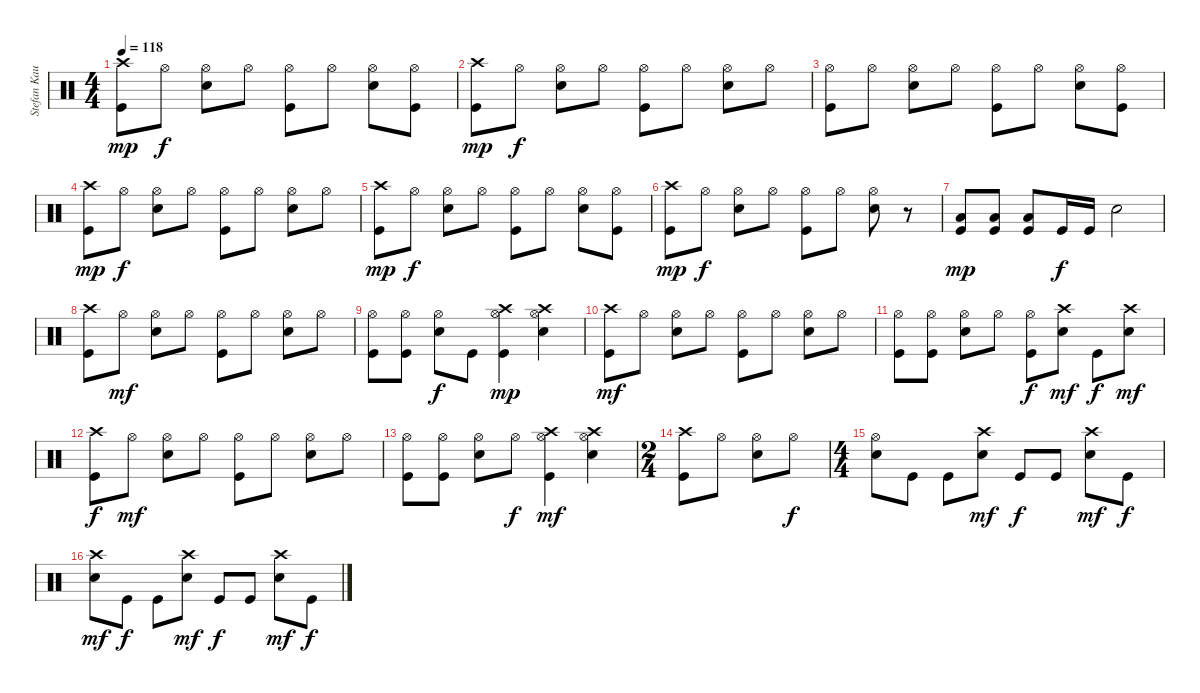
\track ("Stefan Kaufmann" "Stefan Kau") {instrument percussion}
\staff {score}
\articulation defaults
\ts (4 4)
\tempo 118
\clef neutral
\ks c
("Crash high (hit)" "Kick (hit)").8{dy mp} "Hi-Hat (open)".8{dy f} ("Hi-Hat (open)" "Snare (hit) 2").8 "Hi-Hat (open)".8 ("Hi-Hat (open)" "Kick (hit)").8 "Hi-Hat (open)".8 ("Hi-Hat (open)" "Snare (hit) 2").8 ("Hi-Hat (open)" "Kick (hit)").8 |
("Crash high (hit)" "Kick (hit)").8{dy mp} "Hi-Hat (open)".8{dy f} ("Hi-Hat (open)" "Snare (hit) 2").8 "Hi-Hat (open)".8 ("Hi-Hat (open)" "Kick (hit)").8 "Hi-Hat (open)".8 ("Hi-Hat (open)" "Snare (hit) 2").8 "Hi-Hat (open)".8 |
("Hi-Hat (open)" "Kick (hit)").8 "Hi-Hat (open)".8 ("Hi-Hat (open)" "Snare (hit) 2").8 "Hi-Hat (open)".8 ("Hi-Hat (open)" "Kick (hit)").8 "Hi-Hat (open)".8 ("Hi-Hat (open)" "Snare (hit) 2").8 ("Hi-Hat (open)" "Kick (hit)").8 |
("Crash high (hit)" "Kick (hit)").8{dy mp} "Hi-Hat (open)".8{dy f} ("Hi-Hat (open)" "Snare (hit) 2").8 "Hi-Hat (open)".8 ("Hi-Hat (open)" "Kick (hit)").8 "Hi-Hat (open)".8 ("Hi-Hat (open)" "Snare (hit) 2").8 "Hi-Hat (open)".8 |
("Crash high (hit)" "Kick (hit)").8{dy mp} "Hi-Hat (open)".8{dy f} ("Hi-Hat (open)" "Snare (hit) 2").8 "Hi-Hat (open)".8 ("Hi-Hat (open)" "Kick (hit)").8 "Hi-Hat (open)".8 ("Hi-Hat (open)" "Snare (hit) 2").8 ("Hi-Hat (open)" "Kick (hit)").8 |
("Crash high (hit)" "Kick (hit)").8{dy mp} "Hi-Hat (open)".8{dy f} ("Hi-Hat (open)" "Snare (hit) 2").8 "Hi-Hat (open)".8 ("Hi-Hat (open)" "Kick (hit)").8 "Hi-Hat (open)".8 ("Hi-Hat (open)" "Snare (hit) 2").8 r.8 |
("Low Floor Tom (hit)" "Kick (hit)").8{dy mp} ("Low Floor Tom (hit)" "Kick (hit)").8 ("Low Floor Tom (hit)" "Kick (hit)").8 "Kick (hit)".16{dy f} "Kick (hit)".16 "Snare (hit) 2".2 |
("Crash high (hit)" "Kick (hit)").8 "Hi-Hat (open)".8{dy mf} ("Hi-Hat (open)" "Snare (hit) 2").8 "Hi-Hat (open)".8 ("Hi-Hat (open)" "Kick (hit)").8 "Hi-Hat (open)".8 ("Hi-Hat (open)" "Snare (hit) 2").8 "Hi-Hat (open)".8 |
("Hi-Hat (open)" "Kick (hit)").8 ("Hi-Hat (open)" "Kick (hit)").8 ("Hi-Hat (open)" "Snare (hit) 2").8{dy f} "Kick (hit)".8 ("Hi-Hat (open)" "Kick (hit)" "Crash high (hit)").4{dy mp} ("Hi-Hat (open)" "Snare (hit) 2" "Crash high (hit)").4 |
("Crash high (hit)" "Kick (hit)").8{dy mf} "Hi-Hat (open)".8 ("Hi-Hat (open)" "Snare (hit) 2").8 "Hi-Hat (open)".8 ("Hi-Hat (open)" "Kick (hit)").8 "Hi-Hat (open)".8 ("Hi-Hat (open)" "Snare (hit) 2").8 "Hi-Hat (open)".8 |
("Hi-Hat (open)" "Kick (hit)").8 ("Hi-Hat (open)" "Kick (hit)").8 ("Hi-Hat (open)" "Snare (hit) 2").8 "Hi-Hat (open)".8 ("Hi-Hat (open)" "Kick (hit)").8{dy f} ("Snare (hit) 2" "Crash high (hit)").8{dy mf} "Kick (hit)".8{dy f} ("Snare (hit) 2" "Crash high (hit)").8{dy mf} |
("Crash high (hit)" "Kick (hit)").8{dy f} "Hi-Hat (open)".8{dy mf} ("Hi-Hat (open)" "Snare (hit) 2").8 "Hi-Hat (open)".8 ("Hi-Hat (open)" "Kick (hit)").8 "Hi-Hat (open)".8 ("Hi-Hat (open)" "Snare (hit) 2").8 "Hi-Hat (open)".8 |
("Hi-Hat (open)" "Kick (hit)").8 ("Hi-Hat (open)" "Kick (hit)").8 ("Hi-Hat (open)" "Snare (hit) 2").8 "Hi-Hat (open)".8{dy f} ("Hi-Hat (open)" "Kick (hit)" "Crash high (hit)").4{dy mf} ("Hi-Hat (open)" "Snare (hit) 2" "Crash high (hit)").4 |
\ts (2 4)
("Crash high (hit)" "Kick (hit)").8 "Hi-Hat (open)".8 ("Hi-Hat (open)" "Snare (hit) 2").8 "Hi-Hat (open)".8{dy f} |
\ts (4 4)
("Hi-Hat (open)" "Snare (hit) 2").8 "Kick (hit)".8 "Kick (hit)".8 ("Crash high (hit)" "Snare (hit) 2").8{dy mf} "Kick (hit)".8{dy f} "Kick (hit)".8 ("Crash high (hit)" "Snare (hit) 2").8{dy mf} "Kick (hit)".8{dy f} |
("Crash high (hit)" "Snare (hit) 2").8{dy mf} "Kick (hit)".8{dy f} "Kick (hit)".8 ("Crash high (hit)" "Snare (hit) 2").8{dy mf} "Kick (hit)".8{dy f} "Kick (hit)".8 ("Crash high (hit)" "Snare (hit) 2").8{dy mf} "Kick (hit)".8{dy f}
